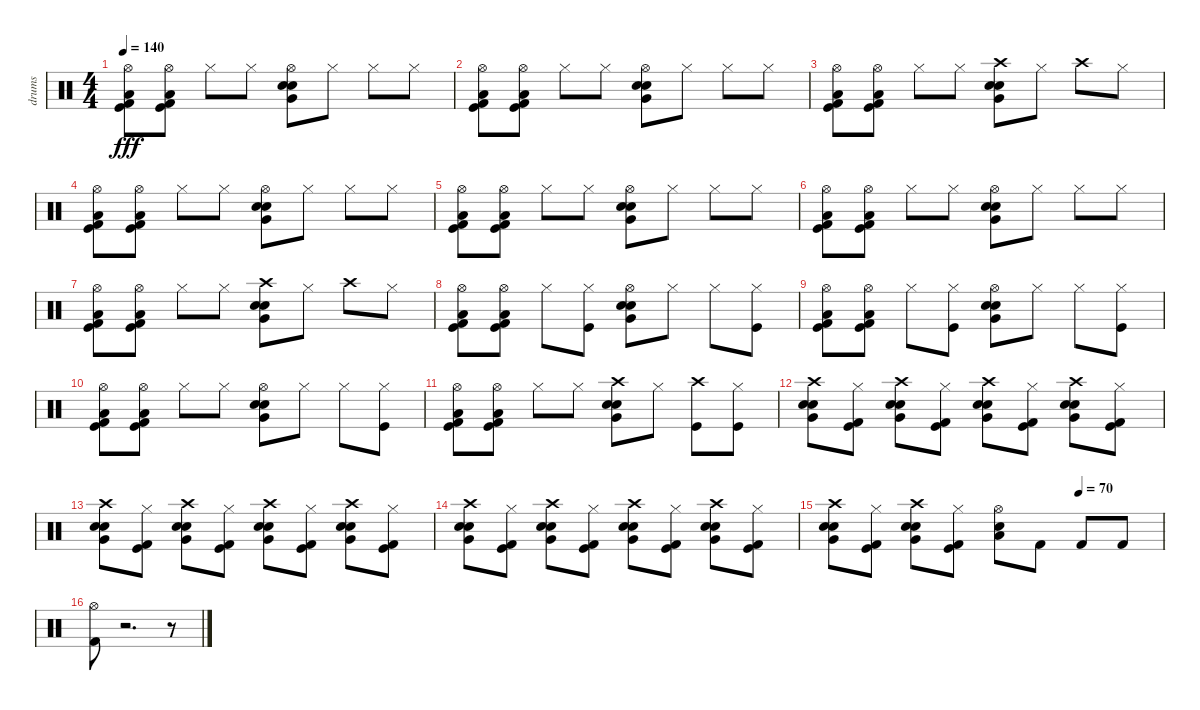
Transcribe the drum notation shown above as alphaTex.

\track ("drums" "drums") {instrument percussion}
\staff {score}
\articulation defaults
\ts (4 4)
\tempo 140
\clef neutral
\ks c
("Hi-Hat (open)" "Low Floor Tom (hit)" "Kick (hit)" "Kick (hit) 2").8{dy fff} ("Hi-Hat (open)" "Low Floor Tom (hit)" "Kick (hit)" "Kick (hit) 2").8 "Hi-Hat (closed)".8 "Hi-Hat (closed)".8 ("Hi-Hat (open)" "Very Low Tom (hit)" "Snare (hit) 2" "Electric Snare (hit)").8 "Hi-Hat (closed)".8 "Hi-Hat (closed)".8 "Hi-Hat (closed)".8 |
("Hi-Hat (open)" "Low Floor Tom (hit)" "Kick (hit)" "Kick (hit) 2").8 ("Hi-Hat (open)" "Low Floor Tom (hit)" "Kick (hit)" "Kick (hit) 2").8 "Hi-Hat (closed)".8 "Hi-Hat (closed)".8 ("Hi-Hat (open)" "Very Low Tom (hit)" "Snare (hit) 2" "Electric Snare (hit)").8 "Hi-Hat (closed)".8 "Hi-Hat (closed)".8 "Hi-Hat (closed)".8 |
("Hi-Hat (open)" "Low Floor Tom (hit)" "Kick (hit)" "Kick (hit) 2").8 ("Hi-Hat (open)" "Low Floor Tom (hit)" "Kick (hit)" "Kick (hit) 2").8 "Hi-Hat (closed)".8 "Hi-Hat (closed)".8 ("Crash high (hit)" "Very Low Tom (hit)" "Snare (hit) 2" "Electric Snare (hit)").8 "Hi-Hat (closed)".8 "Crash high (hit)".8 "Hi-Hat (closed)".8 |
("Hi-Hat (open)" "Low Floor Tom (hit)" "Kick (hit)" "Kick (hit) 2").8 ("Hi-Hat (open)" "Low Floor Tom (hit)" "Kick (hit)" "Kick (hit) 2").8 "Hi-Hat (closed)".8 "Hi-Hat (closed)".8 ("Hi-Hat (open)" "Very Low Tom (hit)" "Snare (hit) 2" "Electric Snare (hit)").8 "Hi-Hat (closed)".8 "Hi-Hat (closed)".8 "Hi-Hat (closed)".8 |
("Hi-Hat (open)" "Low Floor Tom (hit)" "Kick (hit)" "Kick (hit) 2").8 ("Hi-Hat (open)" "Low Floor Tom (hit)" "Kick (hit)" "Kick (hit) 2").8 "Hi-Hat (closed)".8 "Hi-Hat (closed)".8 ("Hi-Hat (open)" "Very Low Tom (hit)" "Snare (hit) 2" "Electric Snare (hit)").8 "Hi-Hat (closed)".8 "Hi-Hat (closed)".8 "Hi-Hat (closed)".8 |
("Hi-Hat (open)" "Low Floor Tom (hit)" "Kick (hit)" "Kick (hit) 2").8 ("Hi-Hat (open)" "Low Floor Tom (hit)" "Kick (hit)" "Kick (hit) 2").8 "Hi-Hat (closed)".8 "Hi-Hat (closed)".8 ("Hi-Hat (open)" "Very Low Tom (hit)" "Snare (hit) 2" "Electric Snare (hit)").8 "Hi-Hat (closed)".8 "Hi-Hat (closed)".8 "Hi-Hat (closed)".8 |
("Hi-Hat (open)" "Low Floor Tom (hit)" "Kick (hit)" "Kick (hit) 2").8 ("Hi-Hat (open)" "Low Floor Tom (hit)" "Kick (hit)" "Kick (hit) 2").8 "Hi-Hat (closed)".8 "Hi-Hat (closed)".8 ("Crash high (hit)" "Very Low Tom (hit)" "Snare (hit) 2" "Electric Snare (hit)").8 "Hi-Hat (closed)".8 "Crash high (hit)".8 "Hi-Hat (closed)".8 |
("Hi-Hat (open)" "Low Floor Tom (hit)" "Kick (hit)" "Kick (hit) 2").8 ("Hi-Hat (open)" "Low Floor Tom (hit)" "Kick (hit)" "Kick (hit) 2").8 "Hi-Hat (closed)".8 ("Kick (hit)" "Hi-Hat (closed)").8 ("Hi-Hat (open)" "Very Low Tom (hit)" "Snare (hit) 2" "Electric Snare (hit)").8 "Hi-Hat (closed)".8 "Hi-Hat (closed)".8 ("Kick (hit)" "Hi-Hat (closed)").8 |
("Hi-Hat (open)" "Low Floor Tom (hit)" "Kick (hit)" "Kick (hit) 2").8 ("Hi-Hat (open)" "Low Floor Tom (hit)" "Kick (hit)" "Kick (hit) 2").8 "Hi-Hat (closed)".8 ("Kick (hit)" "Hi-Hat (closed)").8 ("Hi-Hat (open)" "Very Low Tom (hit)" "Snare (hit) 2" "Electric Snare (hit)").8 "Hi-Hat (closed)".8 "Hi-Hat (closed)".8 ("Kick (hit)" "Hi-Hat (closed)").8 |
("Hi-Hat (open)" "Low Floor Tom (hit)" "Kick (hit)" "Kick (hit) 2").8 ("Hi-Hat (open)" "Low Floor Tom (hit)" "Kick (hit)" "Kick (hit) 2").8 "Hi-Hat (closed)".8 "Hi-Hat (closed)".8 ("Hi-Hat (open)" "Very Low Tom (hit)" "Snare (hit) 2" "Electric Snare (hit)").8 "Hi-Hat (closed)".8 "Hi-Hat (closed)".8 ("Kick (hit)" "Hi-Hat (closed)").8 |
("Hi-Hat (open)" "Low Floor Tom (hit)" "Kick (hit)" "Kick (hit) 2").8 ("Hi-Hat (open)" "Low Floor Tom (hit)" "Kick (hit)" "Kick (hit) 2").8 "Hi-Hat (closed)".8 "Hi-Hat (closed)".8 ("Crash high (hit)" "Very Low Tom (hit)" "Snare (hit) 2" "Electric Snare (hit)").8 "Hi-Hat (closed)".8 ("Kick (hit)" "Crash high (hit)").8 ("Kick (hit)" "Hi-Hat (closed)").8 |
("Crash high (hit)" "Very Low Tom (hit)" "Snare (hit) 2" "Electric Snare (hit)").8 ("Kick (hit) 2" "Kick (hit)" "Hi-Hat (closed)").8 ("Very Low Tom (hit)" "Electric Snare (hit)" "Snare (hit) 2" "Crash high (hit)").8 ("Kick (hit)" "Kick (hit) 2" "Hi-Hat (closed)").8 ("Crash high (hit)" "Very Low Tom (hit)" "Snare (hit) 2" "Electric Snare (hit)").8 ("Kick (hit) 2" "Kick (hit)" "Hi-Hat (closed)").8 ("Very Low Tom (hit)" "Electric Snare (hit)" "Snare (hit) 2" "Crash high (hit)").8 ("Kick (hit)" "Kick (hit) 2" "Hi-Hat (closed)").8 |
("Crash high (hit)" "Very Low Tom (hit)" "Snare (hit) 2" "Electric Snare (hit)").8 ("Kick (hit) 2" "Kick (hit)" "Hi-Hat (closed)").8 ("Very Low Tom (hit)" "Electric Snare (hit)" "Snare (hit) 2" "Crash high (hit)").8 ("Kick (hit)" "Kick (hit) 2" "Hi-Hat (closed)").8 ("Crash high (hit)" "Very Low Tom (hit)" "Snare (hit) 2" "Electric Snare (hit)").8 ("Kick (hit) 2" "Kick (hit)" "Hi-Hat (closed)").8 ("Very Low Tom (hit)" "Electric Snare (hit)" "Snare (hit) 2" "Crash high (hit)").8 ("Kick (hit)" "Kick (hit) 2" "Hi-Hat (closed)").8 |
("Crash high (hit)" "Very Low Tom (hit)" "Snare (hit) 2" "Electric Snare (hit)").8 ("Kick (hit) 2" "Kick (hit)" "Hi-Hat (closed)").8 ("Very Low Tom (hit)" "Electric Snare (hit)" "Snare (hit) 2" "Crash high (hit)").8 ("Kick (hit)" "Kick (hit) 2" "Hi-Hat (closed)").8 ("Crash high (hit)" "Very Low Tom (hit)" "Snare (hit) 2" "Electric Snare (hit)").8 ("Kick (hit) 2" "Kick (hit)" "Hi-Hat (closed)").8 ("Very Low Tom (hit)" "Electric Snare (hit)" "Snare (hit) 2" "Crash high (hit)").8 ("Kick (hit)" "Kick (hit) 2" "Hi-Hat (closed)").8 |
\tempo (70 0.75)
("Crash high (hit)" "Very Low Tom (hit)" "Snare (hit) 2" "Electric Snare (hit)").8 ("Kick (hit) 2" "Kick (hit)" "Hi-Hat (closed)").8 ("Very Low Tom (hit)" "Electric Snare (hit)" "Snare (hit) 2" "Crash high (hit)").8 ("Kick (hit)" "Kick (hit) 2" "Hi-Hat (closed)").8 ("Hi-Hat (open)" "Low Tom (hit)" "Snare (hit) 2").8 "Kick (hit) 2".8 "Kick (hit) 2".8 "Kick (hit) 2".8 |
("Hi-Hat (open)" "Kick (hit) 2").8 r.2{d} r.8
